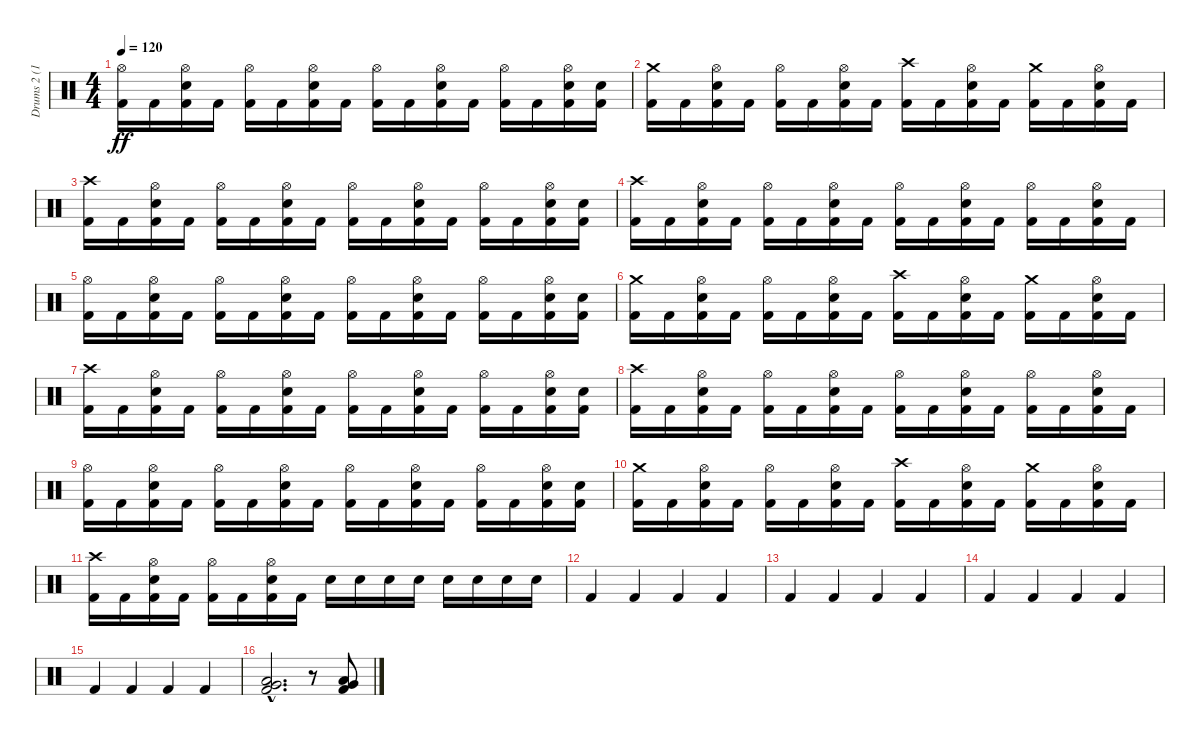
\track ("Drums 2 (16)" "Drums 2 (1") {instrument percussion}
\staff {score}
\articulation defaults
\ts (4 4)
\tempo 120
\clef neutral
\ks c
("Kick (hit) 2" "Hi-Hat (open)").16{dy ff} "Kick (hit) 2".16 ("Kick (hit) 2" "Snare (hit) 2" "Hi-Hat (open)").16 "Kick (hit) 2".16 ("Kick (hit) 2" "Hi-Hat (open)").16 "Kick (hit) 2".16 ("Kick (hit) 2" "Snare (hit) 2" "Hi-Hat (open)").16 "Kick (hit) 2".16 ("Kick (hit) 2" "Hi-Hat (open)").16 "Kick (hit) 2".16 ("Kick (hit) 2" "Snare (hit) 2" "Hi-Hat (open)").16 "Kick (hit) 2".16 ("Kick (hit) 2" "Hi-Hat (open)").16 "Kick (hit) 2".16 ("Kick (hit) 2" "Snare (hit) 2" "Hi-Hat (open)").16 ("Kick (hit) 2" "Snare (hit) 2").16 |
("Kick (hit) 2" "Crash medium (hit)").16 "Kick (hit) 2".16 ("Kick (hit) 2" "Snare (hit) 2" "Hi-Hat (open)").16 "Kick (hit) 2".16 ("Kick (hit) 2" "Hi-Hat (open)").16 "Kick (hit) 2".16 ("Kick (hit) 2" "Snare (hit) 2" "Hi-Hat (open)").16 "Kick (hit) 2".16 ("Kick (hit) 2" "Crash high (hit)").16 "Kick (hit) 2".16 ("Kick (hit) 2" "Snare (hit) 2" "Hi-Hat (open)").16 "Kick (hit) 2".16 ("Kick (hit) 2" "Crash medium (hit)").16 "Kick (hit) 2".16 ("Kick (hit) 2" "Snare (hit) 2" "Hi-Hat (open)").16 "Kick (hit) 2".16 |
("Kick (hit) 2" "Crash high (hit)").16 "Kick (hit) 2".16 ("Kick (hit) 2" "Snare (hit) 2" "Hi-Hat (open)").16 "Kick (hit) 2".16 ("Kick (hit) 2" "Hi-Hat (open)").16 "Kick (hit) 2".16 ("Kick (hit) 2" "Snare (hit) 2" "Hi-Hat (open)").16 "Kick (hit) 2".16 ("Kick (hit) 2" "Hi-Hat (open)").16 "Kick (hit) 2".16 ("Kick (hit) 2" "Snare (hit) 2" "Hi-Hat (open)").16 "Kick (hit) 2".16 ("Kick (hit) 2" "Hi-Hat (open)").16 "Kick (hit) 2".16 ("Kick (hit) 2" "Snare (hit) 2" "Hi-Hat (open)").16 ("Kick (hit) 2" "Snare (hit) 2").16 |
("Kick (hit) 2" "Crash high (hit)").16 "Kick (hit) 2".16 ("Kick (hit) 2" "Snare (hit) 2" "Hi-Hat (open)").16 "Kick (hit) 2".16 ("Kick (hit) 2" "Hi-Hat (open)").16 "Kick (hit) 2".16 ("Kick (hit) 2" "Snare (hit) 2" "Hi-Hat (open)").16 "Kick (hit) 2".16 ("Kick (hit) 2" "Hi-Hat (open)").16 "Kick (hit) 2".16 ("Kick (hit) 2" "Snare (hit) 2" "Hi-Hat (open)").16 "Kick (hit) 2".16 ("Kick (hit) 2" "Hi-Hat (open)").16 "Kick (hit) 2".16 ("Kick (hit) 2" "Snare (hit) 2" "Hi-Hat (open)").16 "Kick (hit) 2".16 |
("Kick (hit) 2" "Hi-Hat (open)").16 "Kick (hit) 2".16 ("Kick (hit) 2" "Snare (hit) 2" "Hi-Hat (open)").16 "Kick (hit) 2".16 ("Kick (hit) 2" "Hi-Hat (open)").16 "Kick (hit) 2".16 ("Kick (hit) 2" "Snare (hit) 2" "Hi-Hat (open)").16 "Kick (hit) 2".16 ("Kick (hit) 2" "Hi-Hat (open)").16 "Kick (hit) 2".16 ("Kick (hit) 2" "Snare (hit) 2" "Hi-Hat (open)").16 "Kick (hit) 2".16 ("Kick (hit) 2" "Hi-Hat (open)").16 "Kick (hit) 2".16 ("Kick (hit) 2" "Snare (hit) 2" "Hi-Hat (open)").16 ("Kick (hit) 2" "Snare (hit) 2").16 |
("Kick (hit) 2" "Crash medium (hit)").16 "Kick (hit) 2".16 ("Kick (hit) 2" "Snare (hit) 2" "Hi-Hat (open)").16 "Kick (hit) 2".16 ("Kick (hit) 2" "Hi-Hat (open)").16 "Kick (hit) 2".16 ("Kick (hit) 2" "Snare (hit) 2" "Hi-Hat (open)").16 "Kick (hit) 2".16 ("Kick (hit) 2" "Crash high (hit)").16 "Kick (hit) 2".16 ("Kick (hit) 2" "Snare (hit) 2" "Hi-Hat (open)").16 "Kick (hit) 2".16 ("Kick (hit) 2" "Crash medium (hit)").16 "Kick (hit) 2".16 ("Kick (hit) 2" "Snare (hit) 2" "Hi-Hat (open)").16 "Kick (hit) 2".16 |
("Kick (hit) 2" "Crash high (hit)").16 "Kick (hit) 2".16 ("Kick (hit) 2" "Snare (hit) 2" "Hi-Hat (open)").16 "Kick (hit) 2".16 ("Kick (hit) 2" "Hi-Hat (open)").16 "Kick (hit) 2".16 ("Kick (hit) 2" "Snare (hit) 2" "Hi-Hat (open)").16 "Kick (hit) 2".16 ("Kick (hit) 2" "Hi-Hat (open)").16 "Kick (hit) 2".16 ("Kick (hit) 2" "Snare (hit) 2" "Hi-Hat (open)").16 "Kick (hit) 2".16 ("Kick (hit) 2" "Hi-Hat (open)").16 "Kick (hit) 2".16 ("Kick (hit) 2" "Snare (hit) 2" "Hi-Hat (open)").16 ("Kick (hit) 2" "Snare (hit) 2").16 |
("Kick (hit) 2" "Crash high (hit)").16 "Kick (hit) 2".16 ("Kick (hit) 2" "Snare (hit) 2" "Hi-Hat (open)").16 "Kick (hit) 2".16 ("Kick (hit) 2" "Hi-Hat (open)").16 "Kick (hit) 2".16 ("Kick (hit) 2" "Snare (hit) 2" "Hi-Hat (open)").16 "Kick (hit) 2".16 ("Kick (hit) 2" "Hi-Hat (open)").16 "Kick (hit) 2".16 ("Kick (hit) 2" "Snare (hit) 2" "Hi-Hat (open)").16 "Kick (hit) 2".16 ("Kick (hit) 2" "Hi-Hat (open)").16 "Kick (hit) 2".16 ("Kick (hit) 2" "Snare (hit) 2" "Hi-Hat (open)").16 "Kick (hit) 2".16 |
("Kick (hit) 2" "Hi-Hat (open)").16 "Kick (hit) 2".16 ("Kick (hit) 2" "Snare (hit) 2" "Hi-Hat (open)").16 "Kick (hit) 2".16 ("Kick (hit) 2" "Hi-Hat (open)").16 "Kick (hit) 2".16 ("Kick (hit) 2" "Snare (hit) 2" "Hi-Hat (open)").16 "Kick (hit) 2".16 ("Kick (hit) 2" "Hi-Hat (open)").16 "Kick (hit) 2".16 ("Kick (hit) 2" "Snare (hit) 2" "Hi-Hat (open)").16 "Kick (hit) 2".16 ("Kick (hit) 2" "Hi-Hat (open)").16 "Kick (hit) 2".16 ("Kick (hit) 2" "Snare (hit) 2" "Hi-Hat (open)").16 ("Kick (hit) 2" "Snare (hit) 2").16 |
("Kick (hit) 2" "Crash medium (hit)").16 "Kick (hit) 2".16 ("Kick (hit) 2" "Snare (hit) 2" "Hi-Hat (open)").16 "Kick (hit) 2".16 ("Kick (hit) 2" "Hi-Hat (open)").16 "Kick (hit) 2".16 ("Kick (hit) 2" "Snare (hit) 2" "Hi-Hat (open)").16 "Kick (hit) 2".16 ("Kick (hit) 2" "Crash high (hit)").16 "Kick (hit) 2".16 ("Kick (hit) 2" "Snare (hit) 2" "Hi-Hat (open)").16 "Kick (hit) 2".16 ("Kick (hit) 2" "Crash medium (hit)").16 "Kick (hit) 2".16 ("Kick (hit) 2" "Snare (hit) 2" "Hi-Hat (open)").16 "Kick (hit) 2".16 |
("Kick (hit) 2" "Crash high (hit)").16 "Kick (hit) 2".16 ("Kick (hit) 2" "Snare (hit) 2" "Hi-Hat (open)").16 "Kick (hit) 2".16 ("Kick (hit) 2" "Hi-Hat (open)").16 "Kick (hit) 2".16 ("Kick (hit) 2" "Snare (hit) 2" "Hi-Hat (open)").16 "Kick (hit) 2".16 "Snare (hit) 2".16 "Snare (hit) 2".16 "Snare (hit) 2".16 "Snare (hit) 2".16 "Snare (hit) 2".16 "Snare (hit) 2".16 "Snare (hit) 2".16 "Snare (hit) 2".16 |
"Kick (hit) 2".4 "Kick (hit) 2".4 "Kick (hit) 2".4 "Kick (hit) 2".4 |
"Kick (hit) 2".4 "Kick (hit) 2".4 "Kick (hit) 2".4 "Kick (hit) 2".4 |
"Kick (hit) 2".4 "Kick (hit) 2".4 "Kick (hit) 2".4 "Kick (hit) 2".4 |
"Kick (hit) 2".4 "Kick (hit) 2".4 "Kick (hit) 2".4 "Kick (hit) 2".4 |
("Kick (hit) 2"{hac} "Low Floor Tom (hit)"{hac} "Very Low Tom (hit)"{hac}).2{d} r.8 ("Kick (hit) 2" "Low Floor Tom (hit)" "Very Low Tom (hit)").8
